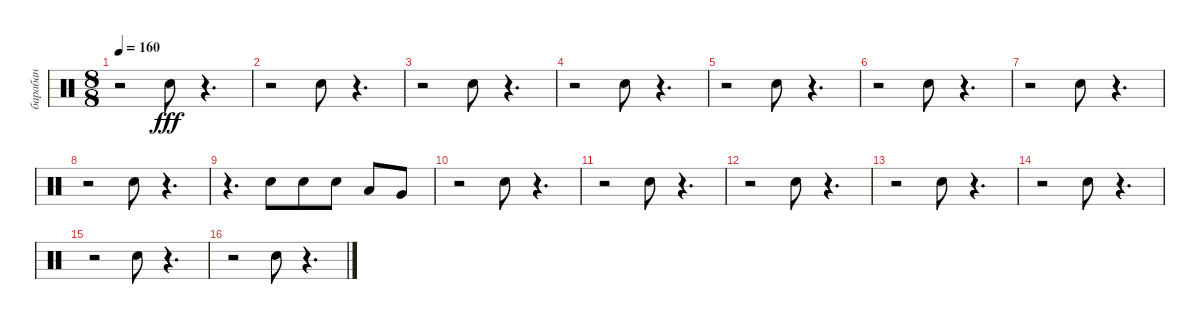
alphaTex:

\track ("барабан" "барабан") {instrument percussion}
\staff {score}
\articulation defaults
\ts (8 8)
\tempo 160
\clef neutral
\ks c
r.2{dy fff} "Snare (hit) 2".8 r.4{d} |
r.2 "Snare (hit) 2".8 r.4{d} |
r.2 "Snare (hit) 2".8 r.4{d} |
r.2 "Snare (hit) 2".8 r.4{d} |
r.2 "Snare (hit) 2".8 r.4{d} |
r.2 "Snare (hit) 2".8 r.4{d} |
r.2 "Snare (hit) 2".8 r.4{d} |
r.2 "Snare (hit) 2".8 r.4{d} |
r.4{d} "Snare (hit) 2".8 "Snare (hit) 2".8 "Snare (hit) 2".8 "Low Tom (hit)".8 "Very Low Tom (hit)".8 |
r.2 "Snare (hit) 2".8 r.4{d} |
r.2 "Snare (hit) 2".8 r.4{d} |
r.2 "Snare (hit) 2".8 r.4{d} |
r.2 "Snare (hit) 2".8 r.4{d} |
r.2 "Snare (hit) 2".8 r.4{d} |
r.2 "Snare (hit) 2".8 r.4{d} |
r.2 "Snare (hit) 2".8 r.4{d}
